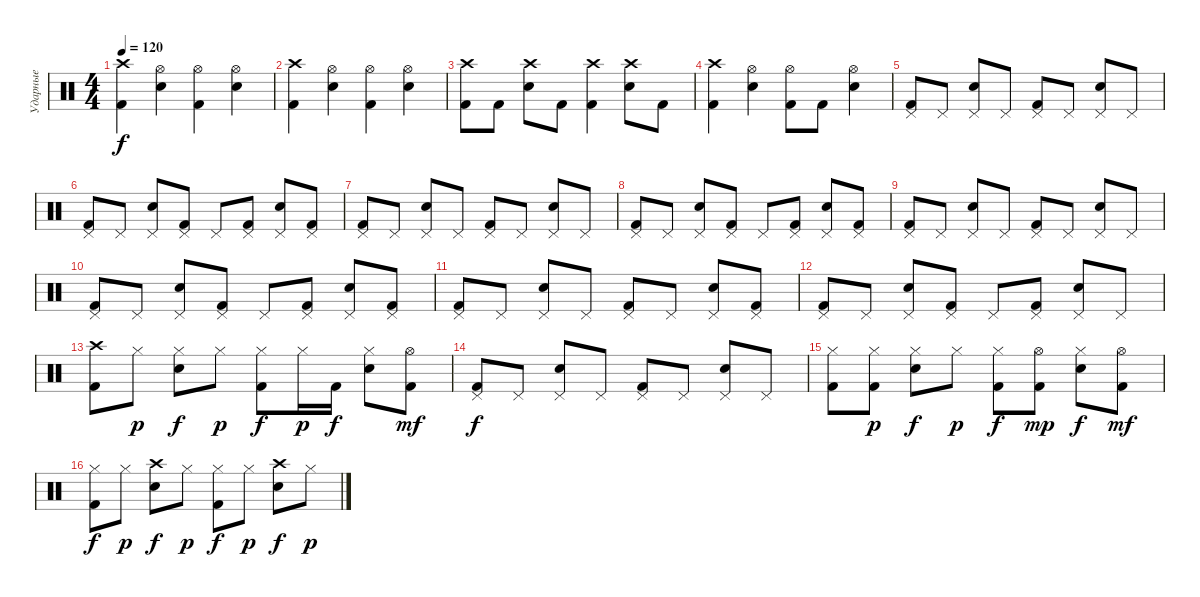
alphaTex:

\track ("Ударные" "Ударные") {instrument percussion}
\staff {score}
\articulation defaults
\ts (4 4)
\tempo 120
\clef neutral
\ks c
("Crash high (hit)" "Kick (hit) 2").4{dy f} ("Hi-Hat (open)" "Electric Snare (hit)").4 ("Hi-Hat (open)" "Kick (hit) 2").4 ("Hi-Hat (open)" "Electric Snare (hit)").4 |
("Crash high (hit)" "Kick (hit) 2").4 ("Hi-Hat (open)" "Electric Snare (hit)").4 ("Hi-Hat (open)" "Kick (hit) 2").4 ("Hi-Hat (open)" "Electric Snare (hit)").4 |
("Crash high (hit)" "Kick (hit) 2").8 "Kick (hit) 2".8 ("Crash high (hit)" "Electric Snare (hit)").8 "Kick (hit) 2".8 ("Crash high (hit)" "Kick (hit) 2").4 ("Crash high (hit)" "Electric Snare (hit)").8 "Kick (hit) 2".8 |
("Crash high (hit)" "Kick (hit) 2").4 ("Hi-Hat (open)" "Electric Snare (hit)").4 ("Hi-Hat (open)" "Kick (hit) 2").8 "Kick (hit) 2".8 ("Hi-Hat (open)" "Electric Snare (hit)").4 |
("Pedal Hi-Hat (hit)" "Kick (hit) 2").8 "Pedal Hi-Hat (hit)".8 ("Pedal Hi-Hat (hit)" "Electric Snare (hit)").8 "Pedal Hi-Hat (hit)".8 ("Pedal Hi-Hat (hit)" "Kick (hit) 2").8 "Pedal Hi-Hat (hit)".8 ("Pedal Hi-Hat (hit)" "Electric Snare (hit)").8 "Pedal Hi-Hat (hit)".8 |
("Pedal Hi-Hat (hit)" "Kick (hit) 2").8 "Pedal Hi-Hat (hit)".8 ("Pedal Hi-Hat (hit)" "Electric Snare (hit)").8 ("Pedal Hi-Hat (hit)" "Kick (hit) 2").8 "Pedal Hi-Hat (hit)".8 ("Pedal Hi-Hat (hit)" "Kick (hit) 2").8 ("Pedal Hi-Hat (hit)" "Electric Snare (hit)").8 ("Pedal Hi-Hat (hit)" "Kick (hit) 2").8 |
("Pedal Hi-Hat (hit)" "Kick (hit) 2").8 "Pedal Hi-Hat (hit)".8 ("Pedal Hi-Hat (hit)" "Electric Snare (hit)").8 "Pedal Hi-Hat (hit)".8 ("Pedal Hi-Hat (hit)" "Kick (hit) 2").8 "Pedal Hi-Hat (hit)".8 ("Pedal Hi-Hat (hit)" "Electric Snare (hit)").8 "Pedal Hi-Hat (hit)".8 |
("Pedal Hi-Hat (hit)" "Kick (hit) 2").8 "Pedal Hi-Hat (hit)".8 ("Pedal Hi-Hat (hit)" "Electric Snare (hit)").8 ("Pedal Hi-Hat (hit)" "Kick (hit) 2").8 "Pedal Hi-Hat (hit)".8 ("Pedal Hi-Hat (hit)" "Kick (hit) 2").8 ("Pedal Hi-Hat (hit)" "Electric Snare (hit)").8 ("Pedal Hi-Hat (hit)" "Kick (hit) 2").8 |
("Pedal Hi-Hat (hit)" "Kick (hit) 2").8 "Pedal Hi-Hat (hit)".8 ("Pedal Hi-Hat (hit)" "Electric Snare (hit)").8 "Pedal Hi-Hat (hit)".8 ("Pedal Hi-Hat (hit)" "Kick (hit) 2").8 "Pedal Hi-Hat (hit)".8 ("Pedal Hi-Hat (hit)" "Electric Snare (hit)").8 "Pedal Hi-Hat (hit)".8 |
("Pedal Hi-Hat (hit)" "Kick (hit) 2").8 "Pedal Hi-Hat (hit)".8 ("Pedal Hi-Hat (hit)" "Electric Snare (hit)").8 ("Pedal Hi-Hat (hit)" "Kick (hit) 2").8 "Pedal Hi-Hat (hit)".8 ("Pedal Hi-Hat (hit)" "Kick (hit) 2").8 ("Pedal Hi-Hat (hit)" "Electric Snare (hit)").8 ("Pedal Hi-Hat (hit)" "Kick (hit) 2").8 |
("Pedal Hi-Hat (hit)" "Kick (hit) 2").8 "Pedal Hi-Hat (hit)".8 ("Pedal Hi-Hat (hit)" "Electric Snare (hit)").8 "Pedal Hi-Hat (hit)".8 ("Pedal Hi-Hat (hit)" "Kick (hit) 2").8 "Pedal Hi-Hat (hit)".8 ("Pedal Hi-Hat (hit)" "Electric Snare (hit)").8 ("Pedal Hi-Hat (hit)" "Kick (hit) 2").8 |
("Pedal Hi-Hat (hit)" "Kick (hit) 2").8 "Pedal Hi-Hat (hit)".8 ("Pedal Hi-Hat (hit)" "Electric Snare (hit)").8 ("Pedal Hi-Hat (hit)" "Kick (hit) 2").8 "Pedal Hi-Hat (hit)".8 ("Pedal Hi-Hat (hit)" "Kick (hit) 2").8 ("Pedal Hi-Hat (hit)" "Electric Snare (hit)").8 "Pedal Hi-Hat (hit)".8 |
("Crash high (hit)" "Kick (hit) 2").8 "Hi-Hat (closed)".8{dy p} ("Hi-Hat (closed)" "Electric Snare (hit)").8{dy f} "Hi-Hat (closed)".8{dy p} ("Hi-Hat (closed)" "Kick (hit) 2").8{dy f} "Hi-Hat (closed)".16{dy p} "Kick (hit) 2".16{dy f} ("Hi-Hat (closed)" "Electric Snare (hit)").8 ("Hi-Hat (open)" "Kick (hit) 2").8{dy mf} |
("Pedal Hi-Hat (hit)" "Kick (hit) 2").8{dy f} "Pedal Hi-Hat (hit)".8 ("Pedal Hi-Hat (hit)" "Electric Snare (hit)").8 "Pedal Hi-Hat (hit)".8 ("Pedal Hi-Hat (hit)" "Kick (hit) 2").8 "Pedal Hi-Hat (hit)".8 ("Pedal Hi-Hat (hit)" "Electric Snare (hit)").8 "Pedal Hi-Hat (hit)".8 |
("Hi-Hat (closed)" "Kick (hit) 2").8 ("Hi-Hat (closed)" "Kick (hit) 2").8{dy p} ("Hi-Hat (closed)" "Electric Snare (hit)").8{dy f} "Hi-Hat (closed)".8{dy p} ("Hi-Hat (closed)" "Kick (hit) 2").8{dy f} ("Hi-Hat (open)" "Kick (hit) 2").8{dy mp} ("Hi-Hat (closed)" "Electric Snare (hit)").8{dy f} ("Hi-Hat (open)" "Kick (hit) 2").8{dy mf} |
("Hi-Hat (closed)" "Kick (hit) 2").8{dy f} "Hi-Hat (closed)".8{dy p} ("Crash high (hit)" "Electric Snare (hit)").8{dy f} "Hi-Hat (closed)".8{dy p} ("Hi-Hat (closed)" "Kick (hit) 2").8{dy f} "Hi-Hat (closed)".8{dy p} ("Crash high (hit)" "Electric Snare (hit)").8{dy f} "Hi-Hat (closed)".8{dy p}
